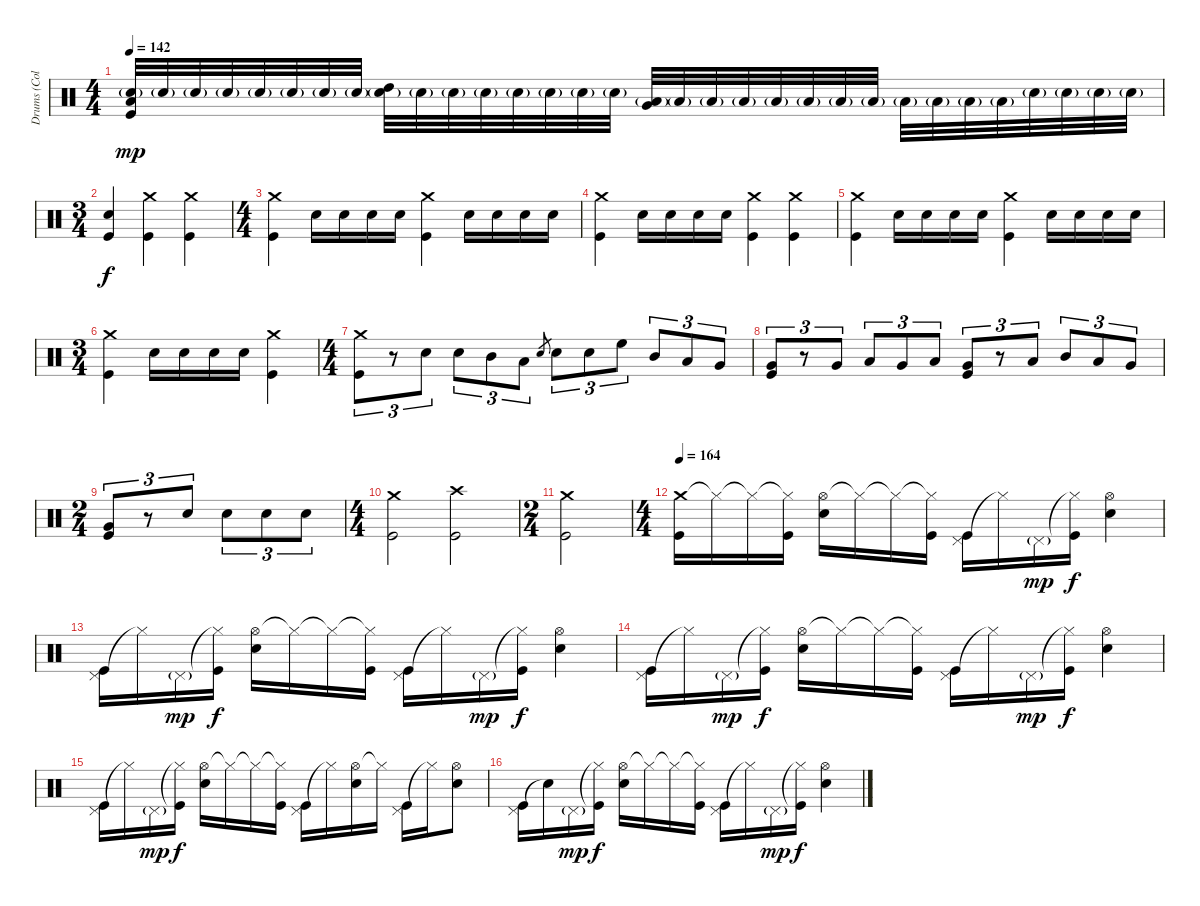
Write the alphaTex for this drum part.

\track ("Drums (Collins)" "Drums (Col") {instrument percussion}
\staff {score}
\articulation defaults
\ts (4 4)
\tempo 142
\clef neutral
\ks c
("Low Tom (hit)" "Snare (hit) 2"{g} "Kick (hit)").32{dy mp} "Snare (hit) 2"{g}.32 "Snare (hit) 2"{g}.32 "Snare (hit) 2"{g}.32 "Snare (hit) 2"{g}.32 "Snare (hit) 2"{g}.32 "Snare (hit) 2"{g}.32 "Snare (hit) 2"{g}.32 ("High Tom (hit)" "Snare (hit) 2"{g}).32 "Snare (hit) 2"{g}.32 "Snare (hit) 2"{g}.32 "Snare (hit) 2"{g}.32 "Snare (hit) 2"{g}.32 "Snare (hit) 2"{g}.32 "Snare (hit) 2"{g}.32 "Snare (hit) 2"{g}.32 ("Very Low Tom (hit)" "Low Tom (hit)"{g}).32 "Low Tom (hit)"{g}.32 "Low Tom (hit)"{g}.32 "Low Tom (hit)"{g}.32 "Low Tom (hit)"{g}.32 "Low Tom (hit)"{g}.32 "Low Tom (hit)"{g}.32 "Low Tom (hit)"{g}.32 "Low Tom (hit)"{g}.32 "Low Tom (hit)"{g}.32 "Low Tom (hit)"{g}.32 "Low Tom (hit)"{g}.32 "Snare (hit) 2"{g}.32 "Snare (hit) 2"{g}.32 "Snare (hit) 2"{g}.32 "Snare (hit) 2"{g}.32 |
\ts (3 4)
("Snare (hit) 2" "Kick (hit)").4{dy f} ("Crash medium (hit)" "Kick (hit)").4 ("Crash medium (hit)" "Kick (hit)").4 |
\ts (4 4)
("Crash medium (hit)" "Kick (hit)").4 "Snare (hit) 2".16 "Snare (hit) 2".16 "Snare (hit) 2".16 "Snare (hit) 2".16 ("Crash medium (hit)" "Kick (hit)").4 "Snare (hit) 2".16 "Snare (hit) 2".16 "Snare (hit) 2".16 "Snare (hit) 2".16 |
("Crash medium (hit)" "Kick (hit)").4 "Snare (hit) 2".16 "Snare (hit) 2".16 "Snare (hit) 2".16 "Snare (hit) 2".16 ("Crash medium (hit)" "Kick (hit)").4 ("Crash medium (hit)" "Kick (hit)").4 |
("Crash medium (hit)" "Kick (hit)").4 "Snare (hit) 2".16 "Snare (hit) 2".16 "Snare (hit) 2".16 "Snare (hit) 2".16 ("Crash medium (hit)" "Kick (hit)").4 "Snare (hit) 2".16 "Snare (hit) 2".16 "Snare (hit) 2".16 "Snare (hit) 2".16 |
\ts (3 4)
("Crash medium (hit)" "Kick (hit)").4 "Snare (hit) 2".16 "Snare (hit) 2".16 "Snare (hit) 2".16 "Snare (hit) 2".16 ("Crash medium (hit)" "Kick (hit)").4 |
\ts (4 4)
("Crash medium (hit)" "Kick (hit)").8{tu (3 2)} r.8{tu (3 2)} "Snare (hit) 2".8{tu (3 2)} "Snare (hit) 2".8{tu (3 2)} "Mid Tom (hit)".8{tu (3 2)} "Low Tom (hit)".8{tu (3 2)} "Snare (hit) 2".8{gr} "Snare (hit) 2".8{tu (3 2)} "Snare (hit) 2".8{tu (3 2)} "High Floor Tom (hit)".8{tu (3 2)} "Mid Tom (hit)".8{tu (3 2)} "Low Tom (hit)".8{tu (3 2)} "Very Low Tom (hit)".8{tu (3 2)} |
("Very Low Tom (hit)" "Kick (hit)").8{tu (3 2)} r.8{tu (3 2)} "Very Low Tom (hit)".8{tu (3 2)} "Low Tom (hit)".8{tu (3 2)} "Very Low Tom (hit)".8{tu (3 2)} "Low Floor Tom (hit)".8{tu (3 2)} ("Very Low Tom (hit)" "Kick (hit)").8{tu (3 2)} r.8{tu (3 2)} "Low Tom (hit)".8{tu (3 2)} "Mid Tom (hit)".8{tu (3 2)} "Low Tom (hit)".8{tu (3 2)} "Very Low Tom (hit)".8{tu (3 2)} |
\ts (2 4)
("Very Low Tom (hit)" "Kick (hit)").8{tu (3 2)} r.8{tu (3 2)} "Snare (hit) 2".8{tu (3 2)} "Snare (hit) 2".8{tu (3 2)} "Snare (hit) 2".8{tu (3 2)} "Snare (hit) 2".8{tu (3 2)} |
\ts (4 4)
("Crash medium (hit)" "Kick (hit)").2 ("Crash high (hit)" "Kick (hit)").2 |
\ts (2 4)
("Crash medium (hit)" "Kick (hit)").2 |
\ts (4 4)
\tempo 164
("Crash medium (hit)" "Kick (hit)").16 "Hi-Hat (closed)"{t}.16 "Hi-Hat (closed)"{t}.16 ("Hi-Hat (closed)"{t} "Kick (hit)").16 ("Hi-Hat (open)" "Snare (hit) 2").16 "Hi-Hat (closed)"{t}.16 "Hi-Hat (closed)"{t}.16 ("Hi-Hat (closed)"{t} "Kick (hit)").16 ("Pedal Hi-Hat (hit)" "Kick (hit)").16 "Hi-Hat (closed)"{t}.16 "Pedal Hi-Hat (hit)"{g}.16{dy mp} ("Hi-Hat (closed)"{t} "Kick (hit)").16{dy f} ("Hi-Hat (open)" "Snare (hit) 2").4 |
("Pedal Hi-Hat (hit)" "Kick (hit)").16 "Hi-Hat (closed)"{t}.16 "Pedal Hi-Hat (hit)"{g}.16{dy mp} ("Hi-Hat (closed)"{t} "Kick (hit)").16{dy f} ("Hi-Hat (open)" "Snare (hit) 2").16 "Hi-Hat (closed)"{t}.16 "Hi-Hat (closed)"{t}.16 ("Hi-Hat (closed)"{t} "Kick (hit)").16 ("Pedal Hi-Hat (hit)" "Kick (hit)").16 "Hi-Hat (closed)"{t}.16 "Pedal Hi-Hat (hit)"{g}.16{dy mp} ("Hi-Hat (closed)"{t} "Kick (hit)").16{dy f} ("Hi-Hat (open)" "Snare (hit) 2").4 |
("Pedal Hi-Hat (hit)" "Kick (hit)").16 "Hi-Hat (closed)"{t}.16 "Pedal Hi-Hat (hit)"{g}.16{dy mp} ("Hi-Hat (closed)"{t} "Kick (hit)").16{dy f} ("Hi-Hat (open)" "Snare (hit) 2").16 "Hi-Hat (closed)"{t}.16 "Hi-Hat (closed)"{t}.16 ("Hi-Hat (closed)"{t} "Kick (hit)").16 ("Pedal Hi-Hat (hit)" "Kick (hit)").16 "Hi-Hat (closed)"{t}.16 "Pedal Hi-Hat (hit)"{g}.16{dy mp} ("Hi-Hat (closed)"{t} "Kick (hit)").16{dy f} ("Hi-Hat (open)" "Snare (hit) 2").4 |
("Pedal Hi-Hat (hit)" "Kick (hit)").16 "Hi-Hat (closed)"{t}.16 "Pedal Hi-Hat (hit)"{g}.16{dy mp} ("Hi-Hat (closed)"{t} "Kick (hit)").16{dy f} ("Hi-Hat (open)" "Snare (hit) 2").16 "Hi-Hat (closed)"{t}.16 "Hi-Hat (closed)"{t}.16 ("Hi-Hat (closed)"{t} "Kick (hit)").16 ("Pedal Hi-Hat (hit)" "Kick (hit)").16 "Hi-Hat (closed)"{t}.16 ("Hi-Hat (open)" "Snare (hit) 2").16 "Hi-Hat (closed)"{t}.16 ("Pedal Hi-Hat (hit)" "Kick (hit)").16 "Hi-Hat (closed)"{t}.16 ("Hi-Hat (open)" "Snare (hit) 2").8 |
("Pedal Hi-Hat (hit)" "Kick (hit)").16 "Snare (hit)"{t}.16 "Pedal Hi-Hat (hit)"{g}.16{dy mp} ("Hi-Hat (closed)"{t} "Kick (hit)").16{dy f} ("Hi-Hat (open)" "Snare (hit) 2").16 "Hi-Hat (closed)"{t}.16 "Hi-Hat (closed)"{t}.16 ("Hi-Hat (closed)"{t} "Kick (hit)").16 ("Pedal Hi-Hat (hit)" "Kick (hit)").16 "Hi-Hat (closed)"{t}.16 "Pedal Hi-Hat (hit)"{g}.16{dy mp} ("Hi-Hat (closed)"{t} "Kick (hit)").16{dy f} ("Hi-Hat (open)" "Snare (hit) 2").4
